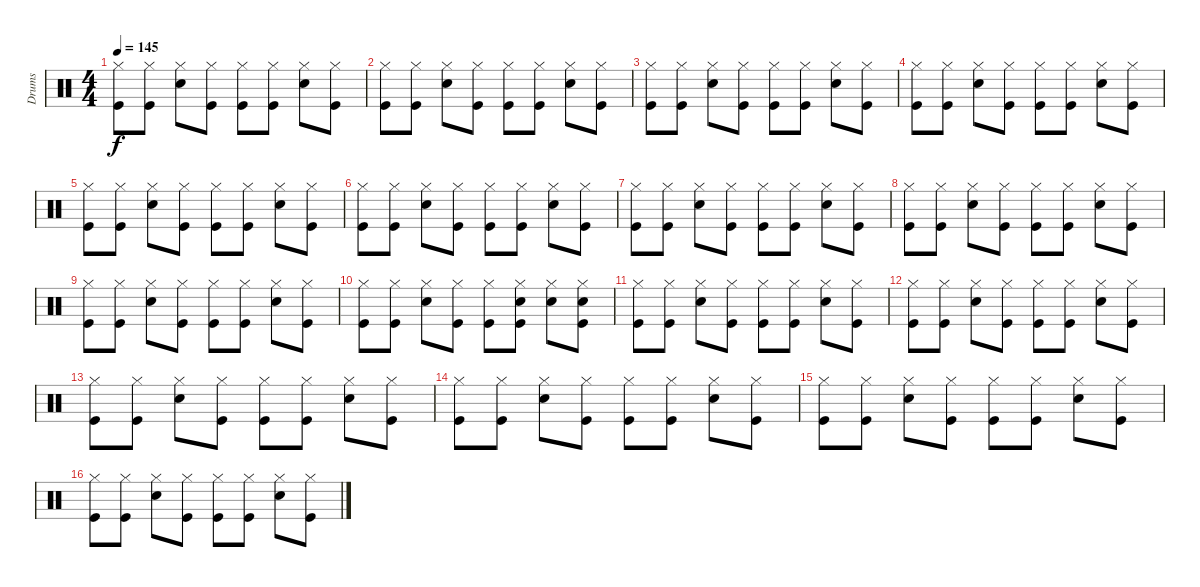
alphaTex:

\track ("Drums" "Drums") {instrument percussion}
\staff {score}
\articulation defaults
\ts (4 4)
\tempo 145
\clef neutral
\ks c
("Kick (hit)" "Hi-Hat (closed)").8{dy f} ("Kick (hit)" "Hi-Hat (closed)").8 ("Hi-Hat (closed)" "Snare (hit) 2").8 ("Kick (hit)" "Hi-Hat (closed)").8 ("Kick (hit)" "Hi-Hat (closed)").8 ("Kick (hit)" "Hi-Hat (closed)").8 ("Hi-Hat (closed)" "Snare (hit) 2").8 ("Kick (hit)" "Hi-Hat (closed)").8 |
("Kick (hit)" "Hi-Hat (closed)").8 ("Kick (hit)" "Hi-Hat (closed)").8 ("Hi-Hat (closed)" "Snare (hit) 2").8 ("Kick (hit)" "Hi-Hat (closed)").8 ("Kick (hit)" "Hi-Hat (closed)").8 ("Kick (hit)" "Hi-Hat (closed)").8 ("Hi-Hat (closed)" "Snare (hit) 2").8 ("Kick (hit)" "Hi-Hat (closed)").8 |
("Kick (hit)" "Hi-Hat (closed)").8 ("Kick (hit)" "Hi-Hat (closed)").8 ("Hi-Hat (closed)" "Snare (hit) 2").8 ("Kick (hit)" "Hi-Hat (closed)").8 ("Kick (hit)" "Hi-Hat (closed)").8 ("Kick (hit)" "Hi-Hat (closed)").8 ("Hi-Hat (closed)" "Snare (hit) 2").8 ("Kick (hit)" "Hi-Hat (closed)").8 |
("Kick (hit)" "Hi-Hat (closed)").8 ("Kick (hit)" "Hi-Hat (closed)").8 ("Hi-Hat (closed)" "Snare (hit) 2").8 ("Kick (hit)" "Hi-Hat (closed)").8 ("Kick (hit)" "Hi-Hat (closed)").8 ("Kick (hit)" "Hi-Hat (closed)").8 ("Hi-Hat (closed)" "Snare (hit) 2").8 ("Kick (hit)" "Hi-Hat (closed)").8 |
("Kick (hit)" "Hi-Hat (closed)").8 ("Kick (hit)" "Hi-Hat (closed)").8 ("Hi-Hat (closed)" "Snare (hit) 2").8 ("Kick (hit)" "Hi-Hat (closed)").8 ("Kick (hit)" "Hi-Hat (closed)").8 ("Kick (hit)" "Hi-Hat (closed)").8 ("Hi-Hat (closed)" "Snare (hit) 2").8 ("Kick (hit)" "Hi-Hat (closed)").8 |
("Kick (hit)" "Hi-Hat (closed)").8 ("Kick (hit)" "Hi-Hat (closed)").8 ("Hi-Hat (closed)" "Snare (hit) 2").8 ("Kick (hit)" "Hi-Hat (closed)").8 ("Kick (hit)" "Hi-Hat (closed)").8 ("Kick (hit)" "Hi-Hat (closed)").8 ("Hi-Hat (closed)" "Snare (hit) 2").8 ("Kick (hit)" "Hi-Hat (closed)").8 |
("Kick (hit)" "Hi-Hat (closed)").8 ("Kick (hit)" "Hi-Hat (closed)").8 ("Hi-Hat (closed)" "Snare (hit) 2").8 ("Kick (hit)" "Hi-Hat (closed)").8 ("Kick (hit)" "Hi-Hat (closed)").8 ("Kick (hit)" "Hi-Hat (closed)").8 ("Hi-Hat (closed)" "Snare (hit) 2").8 ("Kick (hit)" "Hi-Hat (closed)").8 |
("Kick (hit)" "Hi-Hat (closed)").8 ("Kick (hit)" "Hi-Hat (closed)").8 ("Hi-Hat (closed)" "Snare (hit) 2").8 ("Kick (hit)" "Hi-Hat (closed)").8 ("Kick (hit)" "Hi-Hat (closed)").8 ("Kick (hit)" "Hi-Hat (closed)").8 ("Hi-Hat (closed)" "Snare (hit) 2").8 ("Kick (hit)" "Hi-Hat (closed)").8 |
("Kick (hit)" "Hi-Hat (closed)").8 ("Kick (hit)" "Hi-Hat (closed)").8 ("Hi-Hat (closed)" "Snare (hit) 2").8 ("Kick (hit)" "Hi-Hat (closed)").8 ("Kick (hit)" "Hi-Hat (closed)").8 ("Kick (hit)" "Hi-Hat (closed)").8 ("Hi-Hat (closed)" "Snare (hit) 2").8 ("Kick (hit)" "Hi-Hat (closed)").8 |
("Kick (hit)" "Hi-Hat (closed)").8 ("Kick (hit)" "Hi-Hat (closed)").8 ("Hi-Hat (closed)" "Snare (hit) 2").8 ("Kick (hit)" "Hi-Hat (closed)").8 ("Kick (hit)" "Hi-Hat (closed)").8 ("Kick (hit)" "Hi-Hat (closed)" "Snare (hit) 2").8 ("Hi-Hat (closed)" "Snare (hit) 2").8 ("Kick (hit)" "Hi-Hat (closed)" "Snare (hit) 2").8 |
("Kick (hit)" "Hi-Hat (closed)").8 ("Kick (hit)" "Hi-Hat (closed)").8 ("Hi-Hat (closed)" "Snare (hit) 2").8 ("Kick (hit)" "Hi-Hat (closed)").8 ("Kick (hit)" "Hi-Hat (closed)").8 ("Kick (hit)" "Hi-Hat (closed)").8 ("Hi-Hat (closed)" "Snare (hit) 2").8 ("Kick (hit)" "Hi-Hat (closed)").8 |
("Kick (hit)" "Hi-Hat (closed)").8 ("Kick (hit)" "Hi-Hat (closed)").8 ("Hi-Hat (closed)" "Snare (hit) 2").8 ("Kick (hit)" "Hi-Hat (closed)").8 ("Kick (hit)" "Hi-Hat (closed)").8 ("Kick (hit)" "Hi-Hat (closed)").8 ("Hi-Hat (closed)" "Snare (hit) 2").8 ("Kick (hit)" "Hi-Hat (closed)").8 |
("Kick (hit)" "Hi-Hat (closed)").8 ("Kick (hit)" "Hi-Hat (closed)").8 ("Hi-Hat (closed)" "Snare (hit) 2").8 ("Kick (hit)" "Hi-Hat (closed)").8 ("Kick (hit)" "Hi-Hat (closed)").8 ("Kick (hit)" "Hi-Hat (closed)").8 ("Hi-Hat (closed)" "Snare (hit) 2").8 ("Kick (hit)" "Hi-Hat (closed)").8 |
("Kick (hit)" "Hi-Hat (closed)").8 ("Kick (hit)" "Hi-Hat (closed)").8 ("Hi-Hat (closed)" "Snare (hit) 2").8 ("Kick (hit)" "Hi-Hat (closed)").8 ("Kick (hit)" "Hi-Hat (closed)").8 ("Kick (hit)" "Hi-Hat (closed)").8 ("Hi-Hat (closed)" "Snare (hit) 2").8 ("Kick (hit)" "Hi-Hat (closed)").8 |
("Kick (hit)" "Hi-Hat (closed)").8 ("Kick (hit)" "Hi-Hat (closed)").8 ("Hi-Hat (closed)" "Snare (hit) 2").8 ("Kick (hit)" "Hi-Hat (closed)").8 ("Kick (hit)" "Hi-Hat (closed)").8 ("Kick (hit)" "Hi-Hat (closed)").8 ("Hi-Hat (closed)" "Snare (hit) 2").8 ("Kick (hit)" "Hi-Hat (closed)").8 |
("Kick (hit)" "Hi-Hat (closed)").8 ("Kick (hit)" "Hi-Hat (closed)").8 ("Hi-Hat (closed)" "Snare (hit) 2").8 ("Kick (hit)" "Hi-Hat (closed)").8 ("Kick (hit)" "Hi-Hat (closed)").8 ("Kick (hit)" "Hi-Hat (closed)").8 ("Hi-Hat (closed)" "Snare (hit) 2").8 ("Kick (hit)" "Hi-Hat (closed)").8
